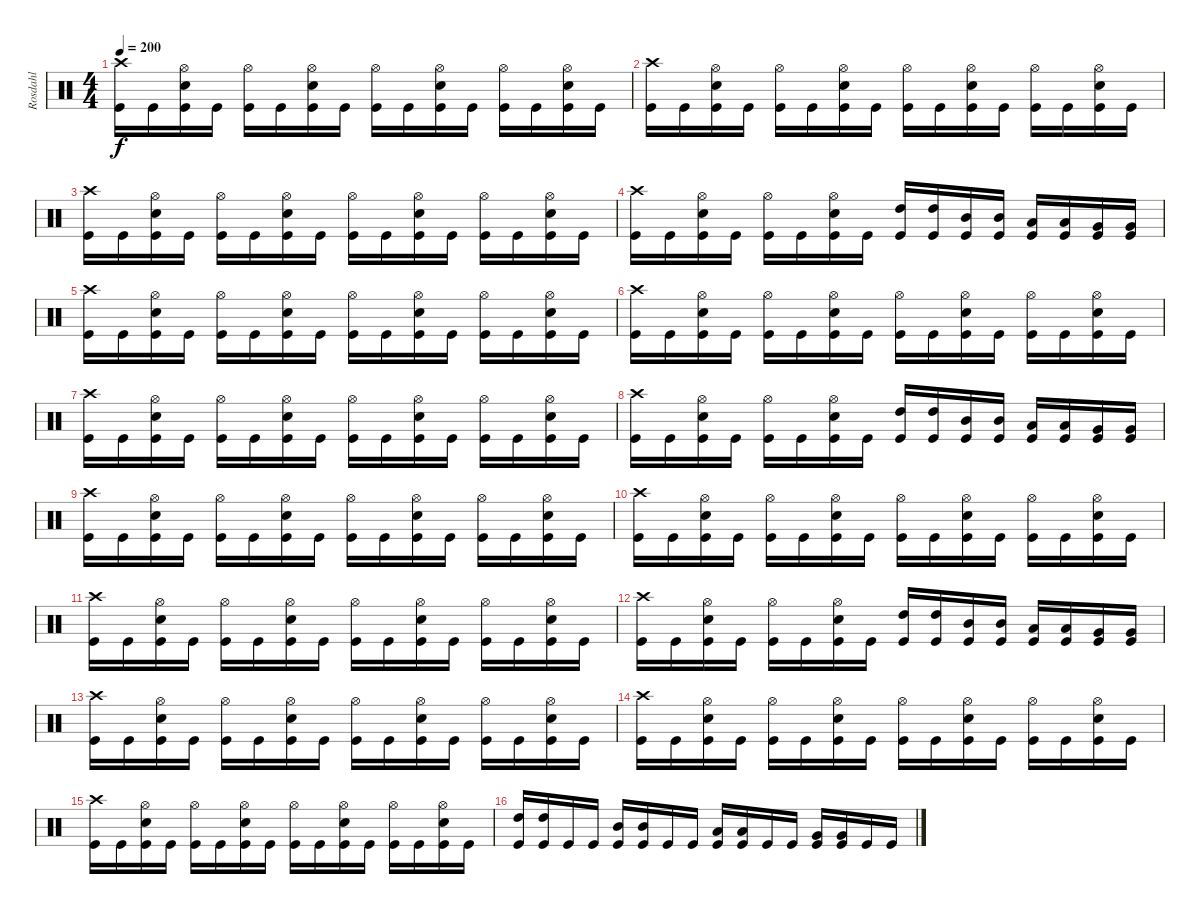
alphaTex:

\track ("Rosdahl" "Rosdahl") {instrument percussion}
\staff {score}
\articulation defaults
\ts (4 4)
\tempo 200
\clef neutral
\ks c
("Crash high (hit)" "Kick (hit)").16{dy f} "Kick (hit)".16 ("Hi-Hat (open)" "Electric Snare (hit)" "Kick (hit)").16 "Kick (hit)".16 ("Hi-Hat (open)" "Kick (hit)").16 "Kick (hit)".16 ("Hi-Hat (open)" "Electric Snare (hit)" "Kick (hit)").16 "Kick (hit)".16 ("Hi-Hat (open)" "Kick (hit)").16 "Kick (hit)".16 ("Hi-Hat (open)" "Electric Snare (hit)" "Kick (hit)").16 "Kick (hit)".16 ("Hi-Hat (open)" "Kick (hit)").16 "Kick (hit)".16 ("Hi-Hat (open)" "Electric Snare (hit)" "Kick (hit)").16 "Kick (hit)".16 |
("Crash high (hit)" "Kick (hit)").16 "Kick (hit)".16 ("Hi-Hat (open)" "Electric Snare (hit)" "Kick (hit)").16 "Kick (hit)".16 ("Hi-Hat (open)" "Kick (hit)").16 "Kick (hit)".16 ("Hi-Hat (open)" "Electric Snare (hit)" "Kick (hit)").16 "Kick (hit)".16 ("Hi-Hat (open)" "Kick (hit)").16 "Kick (hit)".16 ("Hi-Hat (open)" "Electric Snare (hit)" "Kick (hit)").16 "Kick (hit)".16 ("Hi-Hat (open)" "Kick (hit)").16 "Kick (hit)".16 ("Hi-Hat (open)" "Electric Snare (hit)" "Kick (hit)").16 "Kick (hit)".16 |
("Crash high (hit)" "Kick (hit)").16 "Kick (hit)".16 ("Hi-Hat (open)" "Electric Snare (hit)" "Kick (hit)").16 "Kick (hit)".16 ("Hi-Hat (open)" "Kick (hit)").16 "Kick (hit)".16 ("Hi-Hat (open)" "Electric Snare (hit)" "Kick (hit)").16 "Kick (hit)".16 ("Hi-Hat (open)" "Kick (hit)").16 "Kick (hit)".16 ("Hi-Hat (open)" "Electric Snare (hit)" "Kick (hit)").16 "Kick (hit)".16 ("Hi-Hat (open)" "Kick (hit)").16 "Kick (hit)".16 ("Hi-Hat (open)" "Electric Snare (hit)" "Kick (hit)").16 "Kick (hit)".16 |
("Crash high (hit)" "Kick (hit)").16 "Kick (hit)".16 ("Hi-Hat (open)" "Electric Snare (hit)" "Kick (hit)").16 "Kick (hit)".16 ("Hi-Hat (open)" "Kick (hit)").16 "Kick (hit)".16 ("Hi-Hat (open)" "Electric Snare (hit)" "Kick (hit)").16 "Kick (hit)".16 ("High Tom (hit)" "Kick (hit)").16 ("High Tom (hit)" "Kick (hit)").16 ("Mid Tom (hit)" "Kick (hit)").16 ("Mid Tom (hit)" "Kick (hit)").16 ("Low Tom (hit)" "Kick (hit)").16 ("Low Tom (hit)" "Kick (hit)").16 ("Very Low Tom (hit)" "Kick (hit)").16 ("Very Low Tom (hit)" "Kick (hit)").16 |
("Crash high (hit)" "Kick (hit)").16 "Kick (hit)".16 ("Hi-Hat (open)" "Electric Snare (hit)" "Kick (hit)").16 "Kick (hit)".16 ("Hi-Hat (open)" "Kick (hit)").16 "Kick (hit)".16 ("Hi-Hat (open)" "Electric Snare (hit)" "Kick (hit)").16 "Kick (hit)".16 ("Hi-Hat (open)" "Kick (hit)").16 "Kick (hit)".16 ("Hi-Hat (open)" "Electric Snare (hit)" "Kick (hit)").16 "Kick (hit)".16 ("Hi-Hat (open)" "Kick (hit)").16 "Kick (hit)".16 ("Hi-Hat (open)" "Electric Snare (hit)" "Kick (hit)").16 "Kick (hit)".16 |
("Crash high (hit)" "Kick (hit)").16 "Kick (hit)".16 ("Hi-Hat (open)" "Electric Snare (hit)" "Kick (hit)").16 "Kick (hit)".16 ("Hi-Hat (open)" "Kick (hit)").16 "Kick (hit)".16 ("Hi-Hat (open)" "Electric Snare (hit)" "Kick (hit)").16 "Kick (hit)".16 ("Hi-Hat (open)" "Kick (hit)").16 "Kick (hit)".16 ("Hi-Hat (open)" "Electric Snare (hit)" "Kick (hit)").16 "Kick (hit)".16 ("Hi-Hat (open)" "Kick (hit)").16 "Kick (hit)".16 ("Hi-Hat (open)" "Electric Snare (hit)" "Kick (hit)").16 "Kick (hit)".16 |
("Crash high (hit)" "Kick (hit)").16 "Kick (hit)".16 ("Hi-Hat (open)" "Electric Snare (hit)" "Kick (hit)").16 "Kick (hit)".16 ("Hi-Hat (open)" "Kick (hit)").16 "Kick (hit)".16 ("Hi-Hat (open)" "Electric Snare (hit)" "Kick (hit)").16 "Kick (hit)".16 ("Hi-Hat (open)" "Kick (hit)").16 "Kick (hit)".16 ("Hi-Hat (open)" "Electric Snare (hit)" "Kick (hit)").16 "Kick (hit)".16 ("Hi-Hat (open)" "Kick (hit)").16 "Kick (hit)".16 ("Hi-Hat (open)" "Electric Snare (hit)" "Kick (hit)").16 "Kick (hit)".16 |
("Crash high (hit)" "Kick (hit)").16 "Kick (hit)".16 ("Hi-Hat (open)" "Electric Snare (hit)" "Kick (hit)").16 "Kick (hit)".16 ("Hi-Hat (open)" "Kick (hit)").16 "Kick (hit)".16 ("Hi-Hat (open)" "Electric Snare (hit)" "Kick (hit)").16 "Kick (hit)".16 ("High Tom (hit)" "Kick (hit)").16 ("High Tom (hit)" "Kick (hit)").16 ("Mid Tom (hit)" "Kick (hit)").16 ("Mid Tom (hit)" "Kick (hit)").16 ("Low Tom (hit)" "Kick (hit)").16 ("Low Tom (hit)" "Kick (hit)").16 ("Very Low Tom (hit)" "Kick (hit)").16 ("Very Low Tom (hit)" "Kick (hit)").16 |
("Crash high (hit)" "Kick (hit)").16 "Kick (hit)".16 ("Hi-Hat (open)" "Electric Snare (hit)" "Kick (hit)").16 "Kick (hit)".16 ("Hi-Hat (open)" "Kick (hit)").16 "Kick (hit)".16 ("Hi-Hat (open)" "Electric Snare (hit)" "Kick (hit)").16 "Kick (hit)".16 ("Hi-Hat (open)" "Kick (hit)").16 "Kick (hit)".16 ("Hi-Hat (open)" "Electric Snare (hit)" "Kick (hit)").16 "Kick (hit)".16 ("Hi-Hat (open)" "Kick (hit)").16 "Kick (hit)".16 ("Hi-Hat (open)" "Electric Snare (hit)" "Kick (hit)").16 "Kick (hit)".16 |
("Crash high (hit)" "Kick (hit)").16 "Kick (hit)".16 ("Hi-Hat (open)" "Electric Snare (hit)" "Kick (hit)").16 "Kick (hit)".16 ("Hi-Hat (open)" "Kick (hit)").16 "Kick (hit)".16 ("Hi-Hat (open)" "Electric Snare (hit)" "Kick (hit)").16 "Kick (hit)".16 ("Hi-Hat (open)" "Kick (hit)").16 "Kick (hit)".16 ("Hi-Hat (open)" "Electric Snare (hit)" "Kick (hit)").16 "Kick (hit)".16 ("Hi-Hat (open)" "Kick (hit)").16 "Kick (hit)".16 ("Hi-Hat (open)" "Electric Snare (hit)" "Kick (hit)").16 "Kick (hit)".16 |
("Crash high (hit)" "Kick (hit)").16 "Kick (hit)".16 ("Hi-Hat (open)" "Electric Snare (hit)" "Kick (hit)").16 "Kick (hit)".16 ("Hi-Hat (open)" "Kick (hit)").16 "Kick (hit)".16 ("Hi-Hat (open)" "Electric Snare (hit)" "Kick (hit)").16 "Kick (hit)".16 ("Hi-Hat (open)" "Kick (hit)").16 "Kick (hit)".16 ("Hi-Hat (open)" "Electric Snare (hit)" "Kick (hit)").16 "Kick (hit)".16 ("Hi-Hat (open)" "Kick (hit)").16 "Kick (hit)".16 ("Hi-Hat (open)" "Electric Snare (hit)" "Kick (hit)").16 "Kick (hit)".16 |
("Crash high (hit)" "Kick (hit)").16 "Kick (hit)".16 ("Hi-Hat (open)" "Electric Snare (hit)" "Kick (hit)").16 "Kick (hit)".16 ("Hi-Hat (open)" "Kick (hit)").16 "Kick (hit)".16 ("Hi-Hat (open)" "Electric Snare (hit)" "Kick (hit)").16 "Kick (hit)".16 ("High Tom (hit)" "Kick (hit)").16 ("High Tom (hit)" "Kick (hit)").16 ("Mid Tom (hit)" "Kick (hit)").16 ("Mid Tom (hit)" "Kick (hit)").16 ("Low Tom (hit)" "Kick (hit)").16 ("Low Tom (hit)" "Kick (hit)").16 ("Very Low Tom (hit)" "Kick (hit)").16 ("Very Low Tom (hit)" "Kick (hit)").16 |
("Crash high (hit)" "Kick (hit)").16 "Kick (hit)".16 ("Hi-Hat (open)" "Electric Snare (hit)" "Kick (hit)").16 "Kick (hit)".16 ("Hi-Hat (open)" "Kick (hit)").16 "Kick (hit)".16 ("Hi-Hat (open)" "Electric Snare (hit)" "Kick (hit)").16 "Kick (hit)".16 ("Hi-Hat (open)" "Kick (hit)").16 "Kick (hit)".16 ("Hi-Hat (open)" "Electric Snare (hit)" "Kick (hit)").16 "Kick (hit)".16 ("Hi-Hat (open)" "Kick (hit)").16 "Kick (hit)".16 ("Hi-Hat (open)" "Electric Snare (hit)" "Kick (hit)").16 "Kick (hit)".16 |
("Crash high (hit)" "Kick (hit)").16 "Kick (hit)".16 ("Hi-Hat (open)" "Electric Snare (hit)" "Kick (hit)").16 "Kick (hit)".16 ("Hi-Hat (open)" "Kick (hit)").16 "Kick (hit)".16 ("Hi-Hat (open)" "Electric Snare (hit)" "Kick (hit)").16 "Kick (hit)".16 ("Hi-Hat (open)" "Kick (hit)").16 "Kick (hit)".16 ("Hi-Hat (open)" "Electric Snare (hit)" "Kick (hit)").16 "Kick (hit)".16 ("Hi-Hat (open)" "Kick (hit)").16 "Kick (hit)".16 ("Hi-Hat (open)" "Electric Snare (hit)" "Kick (hit)").16 "Kick (hit)".16 |
("Crash high (hit)" "Kick (hit)").16 "Kick (hit)".16 ("Hi-Hat (open)" "Electric Snare (hit)" "Kick (hit)").16 "Kick (hit)".16 ("Hi-Hat (open)" "Kick (hit)").16 "Kick (hit)".16 ("Hi-Hat (open)" "Electric Snare (hit)" "Kick (hit)").16 "Kick (hit)".16 ("Hi-Hat (open)" "Kick (hit)").16 "Kick (hit)".16 ("Hi-Hat (open)" "Electric Snare (hit)" "Kick (hit)").16 "Kick (hit)".16 ("Hi-Hat (open)" "Kick (hit)").16 "Kick (hit)".16 ("Hi-Hat (open)" "Electric Snare (hit)" "Kick (hit)").16 "Kick (hit)".16 |
("High Tom (hit)" "Kick (hit)").16 ("High Tom (hit)" "Kick (hit)").16 "Kick (hit)".16 "Kick (hit)".16 ("Mid Tom (hit)" "Kick (hit)").16 ("Mid Tom (hit)" "Kick (hit)").16 "Kick (hit)".16 "Kick (hit)".16 ("Low Tom (hit)" "Kick (hit)").16 ("Low Tom (hit)" "Kick (hit)").16 "Kick (hit)".16 "Kick (hit)".16 ("Very Low Tom (hit)" "Kick (hit)").16 ("Very Low Tom (hit)" "Kick (hit)").16 "Kick (hit)".16 "Kick (hit)".16
